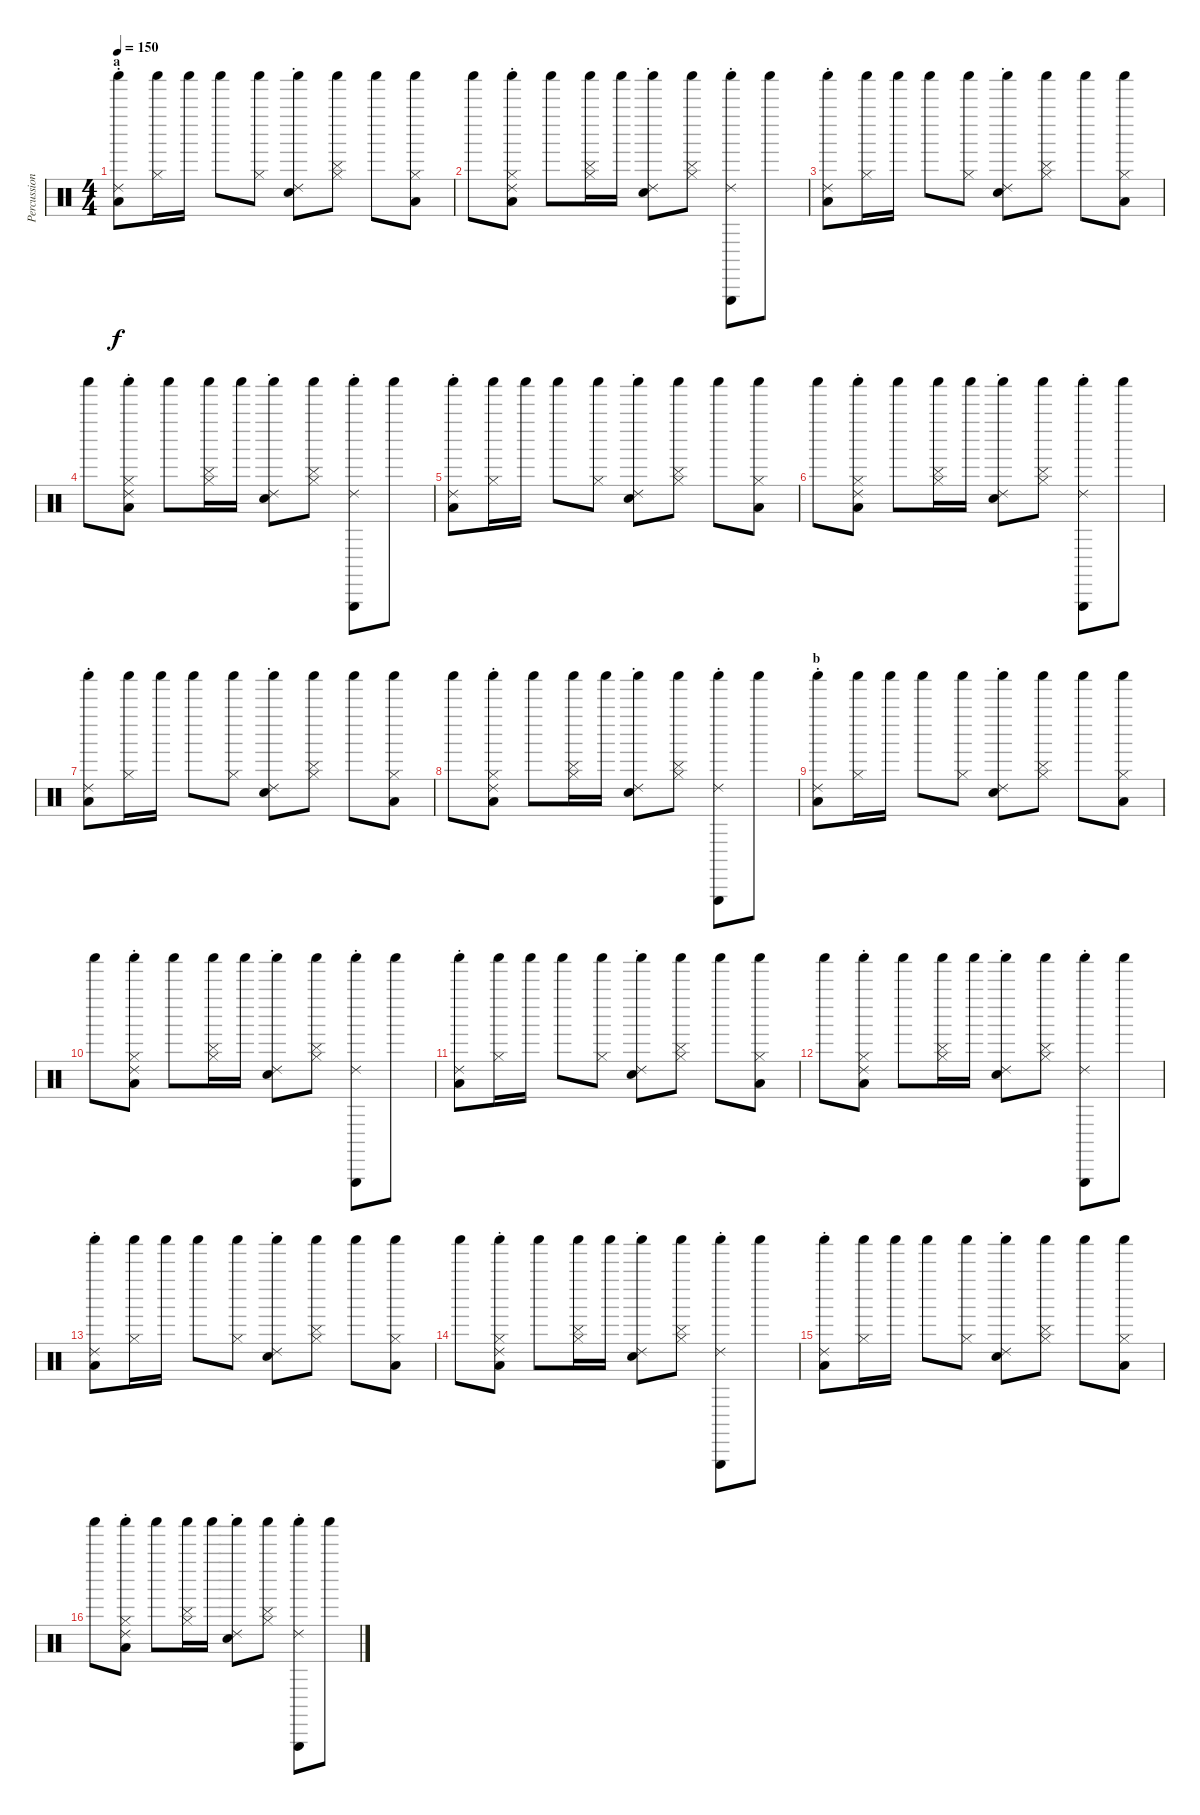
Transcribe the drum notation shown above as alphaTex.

\track ("Percussion" "Percussion") {instrument percussion}
\staff {score}
\articulation defaults
\ts (4 4)
\section ("" "a")
\tempo 150
\clef neutral
\ks c
("Ride (choke) 2" "Shaker (hit)" "Low Floor Tom (hit)").8{dy f} ("Hi-Hat (closed)" "Shaker (hit)").16 "Shaker (hit)".16 "Shaker (hit)".8 ("Hi-Hat (closed)" "Shaker (hit)").8 ("Ride (choke) 2" "Shaker (hit)" "Hand Clap (hit)").8 ("Cymbal (hit)" "Hi-Hat (closed)" "Shaker (hit)").8 "Shaker (hit)".8 ("Hi-Hat (closed)" "Shaker (hit)" "Low Floor Tom (hit)").8 |
"Shaker (hit)".8 ("Ride (choke) 2" "Hi-Hat (closed)" "Shaker (hit)" "Low Floor Tom (hit)").8 "Shaker (hit)".8 ("Cymbal (hit)" "Hi-Hat (closed)" "Shaker (hit)").16 "Shaker (hit)".16 ("Ride (choke) 2" "Shaker (hit)" "Hand Clap (hit)").8 ("Cymbal (hit)" "Hi-Hat (closed)" "Shaker (hit)").8 ("Ride (choke) 2" "Triangle (hit)" "Shaker (hit)").8 "Shaker (hit)".8 |
("Ride (choke) 2" "Shaker (hit)" "Low Floor Tom (hit)").8 ("Hi-Hat (closed)" "Shaker (hit)").16 "Shaker (hit)".16 "Shaker (hit)".8 ("Hi-Hat (closed)" "Shaker (hit)").8 ("Ride (choke) 2" "Shaker (hit)" "Hand Clap (hit)").8 ("Cymbal (hit)" "Hi-Hat (closed)" "Shaker (hit)").8 "Shaker (hit)".8 ("Hi-Hat (closed)" "Shaker (hit)" "Low Floor Tom (hit)").8 |
"Shaker (hit)".8 ("Ride (choke) 2" "Hi-Hat (closed)" "Shaker (hit)" "Low Floor Tom (hit)").8 "Shaker (hit)".8 ("Cymbal (hit)" "Hi-Hat (closed)" "Shaker (hit)").16 "Shaker (hit)".16 ("Ride (choke) 2" "Shaker (hit)" "Hand Clap (hit)").8 ("Cymbal (hit)" "Hi-Hat (closed)" "Shaker (hit)").8 ("Ride (choke) 2" "Triangle (hit)" "Shaker (hit)").8 "Shaker (hit)".8 |
("Ride (choke) 2" "Shaker (hit)" "Low Floor Tom (hit)").8 ("Hi-Hat (closed)" "Shaker (hit)").16 "Shaker (hit)".16 "Shaker (hit)".8 ("Hi-Hat (closed)" "Shaker (hit)").8 ("Ride (choke) 2" "Shaker (hit)" "Hand Clap (hit)").8 ("Cymbal (hit)" "Hi-Hat (closed)" "Shaker (hit)").8 "Shaker (hit)".8 ("Hi-Hat (closed)" "Shaker (hit)" "Low Floor Tom (hit)").8 |
"Shaker (hit)".8 ("Ride (choke) 2" "Hi-Hat (closed)" "Shaker (hit)" "Low Floor Tom (hit)").8 "Shaker (hit)".8 ("Cymbal (hit)" "Hi-Hat (closed)" "Shaker (hit)").16 "Shaker (hit)".16 ("Ride (choke) 2" "Shaker (hit)" "Hand Clap (hit)").8 ("Cymbal (hit)" "Hi-Hat (closed)" "Shaker (hit)").8 ("Ride (choke) 2" "Triangle (hit)" "Shaker (hit)").8 "Shaker (hit)".8 |
("Ride (choke) 2" "Shaker (hit)" "Low Floor Tom (hit)").8 ("Hi-Hat (closed)" "Shaker (hit)").16 "Shaker (hit)".16 "Shaker (hit)".8 ("Hi-Hat (closed)" "Shaker (hit)").8 ("Ride (choke) 2" "Shaker (hit)" "Hand Clap (hit)").8 ("Cymbal (hit)" "Hi-Hat (closed)" "Shaker (hit)").8 "Shaker (hit)".8 ("Hi-Hat (closed)" "Shaker (hit)" "Low Floor Tom (hit)").8 |
"Shaker (hit)".8 ("Ride (choke) 2" "Hi-Hat (closed)" "Shaker (hit)" "Low Floor Tom (hit)").8 "Shaker (hit)".8 ("Cymbal (hit)" "Hi-Hat (closed)" "Shaker (hit)").16 "Shaker (hit)".16 ("Ride (choke) 2" "Shaker (hit)" "Hand Clap (hit)").8 ("Cymbal (hit)" "Hi-Hat (closed)" "Shaker (hit)").8 ("Ride (choke) 2" "Triangle (hit)" "Shaker (hit)").8 "Shaker (hit)".8 |
\section ("" "b")
("Ride (choke) 2" "Shaker (hit)" "Low Floor Tom (hit)").8 ("Hi-Hat (closed)" "Shaker (hit)").16 "Shaker (hit)".16 "Shaker (hit)".8 ("Hi-Hat (closed)" "Shaker (hit)").8 ("Ride (choke) 2" "Shaker (hit)" "Hand Clap (hit)").8 ("Cymbal (hit)" "Hi-Hat (closed)" "Shaker (hit)").8 "Shaker (hit)".8 ("Hi-Hat (closed)" "Shaker (hit)" "Low Floor Tom (hit)").8 |
"Shaker (hit)".8 ("Ride (choke) 2" "Hi-Hat (closed)" "Shaker (hit)" "Low Floor Tom (hit)").8 "Shaker (hit)".8 ("Cymbal (hit)" "Hi-Hat (closed)" "Shaker (hit)").16 "Shaker (hit)".16 ("Ride (choke) 2" "Shaker (hit)" "Hand Clap (hit)").8 ("Cymbal (hit)" "Hi-Hat (closed)" "Shaker (hit)").8 ("Ride (choke) 2" "Triangle (hit)" "Shaker (hit)").8 "Shaker (hit)".8 |
("Ride (choke) 2" "Shaker (hit)" "Low Floor Tom (hit)").8 ("Hi-Hat (closed)" "Shaker (hit)").16 "Shaker (hit)".16 "Shaker (hit)".8 ("Hi-Hat (closed)" "Shaker (hit)").8 ("Ride (choke) 2" "Shaker (hit)" "Hand Clap (hit)").8 ("Cymbal (hit)" "Hi-Hat (closed)" "Shaker (hit)").8 "Shaker (hit)".8 ("Hi-Hat (closed)" "Shaker (hit)" "Low Floor Tom (hit)").8 |
"Shaker (hit)".8 ("Ride (choke) 2" "Hi-Hat (closed)" "Shaker (hit)" "Low Floor Tom (hit)").8 "Shaker (hit)".8 ("Cymbal (hit)" "Hi-Hat (closed)" "Shaker (hit)").16 "Shaker (hit)".16 ("Ride (choke) 2" "Shaker (hit)" "Hand Clap (hit)").8 ("Cymbal (hit)" "Hi-Hat (closed)" "Shaker (hit)").8 ("Ride (choke) 2" "Triangle (hit)" "Shaker (hit)").8 "Shaker (hit)".8 |
("Ride (choke) 2" "Shaker (hit)" "Low Floor Tom (hit)").8 ("Hi-Hat (closed)" "Shaker (hit)").16 "Shaker (hit)".16 "Shaker (hit)".8 ("Hi-Hat (closed)" "Shaker (hit)").8 ("Ride (choke) 2" "Shaker (hit)" "Hand Clap (hit)").8 ("Cymbal (hit)" "Hi-Hat (closed)" "Shaker (hit)").8 "Shaker (hit)".8 ("Hi-Hat (closed)" "Shaker (hit)" "Low Floor Tom (hit)").8 |
"Shaker (hit)".8 ("Ride (choke) 2" "Hi-Hat (closed)" "Shaker (hit)" "Low Floor Tom (hit)").8 "Shaker (hit)".8 ("Cymbal (hit)" "Hi-Hat (closed)" "Shaker (hit)").16 "Shaker (hit)".16 ("Ride (choke) 2" "Shaker (hit)" "Hand Clap (hit)").8 ("Cymbal (hit)" "Hi-Hat (closed)" "Shaker (hit)").8 ("Ride (choke) 2" "Triangle (hit)" "Shaker (hit)").8 "Shaker (hit)".8 |
("Ride (choke) 2" "Shaker (hit)" "Low Floor Tom (hit)").8 ("Hi-Hat (closed)" "Shaker (hit)").16 "Shaker (hit)".16 "Shaker (hit)".8 ("Hi-Hat (closed)" "Shaker (hit)").8 ("Ride (choke) 2" "Shaker (hit)" "Hand Clap (hit)").8 ("Cymbal (hit)" "Hi-Hat (closed)" "Shaker (hit)").8 "Shaker (hit)".8 ("Hi-Hat (closed)" "Shaker (hit)" "Low Floor Tom (hit)").8 |
"Shaker (hit)".8 ("Ride (choke) 2" "Hi-Hat (closed)" "Shaker (hit)" "Low Floor Tom (hit)").8 "Shaker (hit)".8 ("Cymbal (hit)" "Hi-Hat (closed)" "Shaker (hit)").16 "Shaker (hit)".16 ("Ride (choke) 2" "Shaker (hit)" "Hand Clap (hit)").8 ("Cymbal (hit)" "Hi-Hat (closed)" "Shaker (hit)").8 ("Ride (choke) 2" "Triangle (hit)" "Shaker (hit)").8 "Shaker (hit)".8
